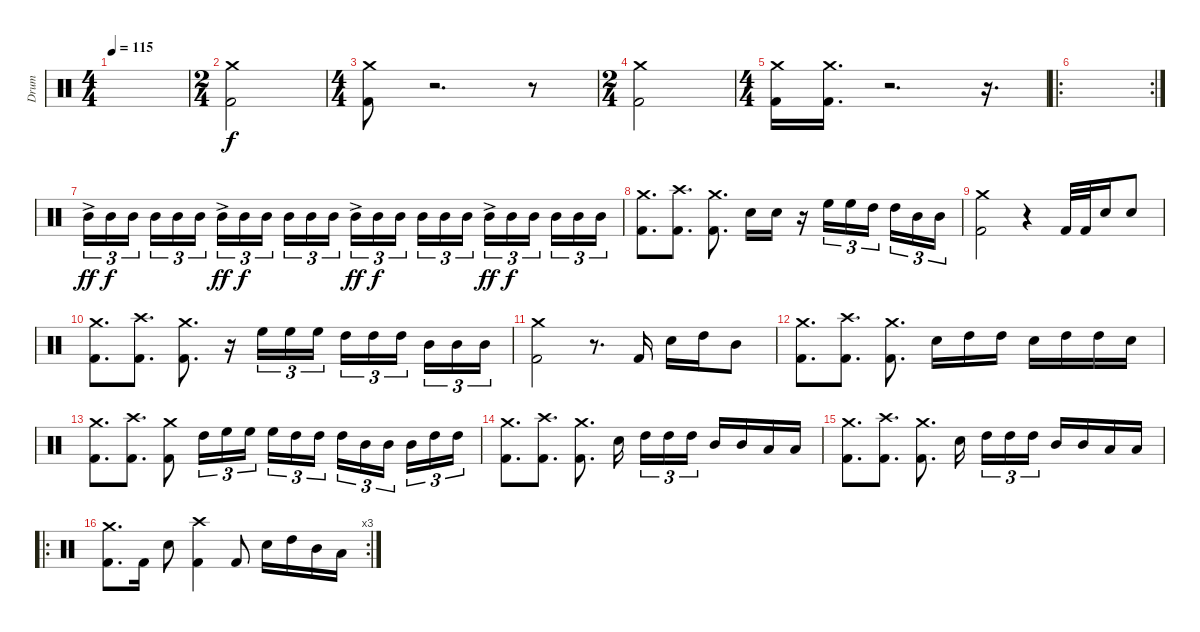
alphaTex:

\track ("Drum" "Drum") {instrument percussion}
\staff {score}
\articulation defaults
\ts (4 4)
\tempo 115
\clef neutral
\ks c
|
\ts (2 4)
("Crash medium (hit)" "Kick (hit) 2").2 |
\ts (4 4)
("Crash medium (hit)" "Kick (hit) 2").8 r.2{d} r.8 |
\ts (2 4)
("Crash medium (hit)" "Kick (hit) 2").2 |
\ts (4 4)
("Crash medium (hit)" "Kick (hit) 2").16 ("Crash medium (hit)" "Kick (hit) 2").16{d} r.2{d} r.16{d} |
\ro
\rc 2
|
"Mid Tom (hit)"{ac}.16{tu (3 2) dy ff} "Mid Tom (hit)".16{tu (3 2) dy f} "Mid Tom (hit)".16{tu (3 2)} "Mid Tom (hit)".16{tu (3 2)} "Mid Tom (hit)".16{tu (3 2)} "Mid Tom (hit)".16{tu (3 2)} "Mid Tom (hit)"{ac}.16{tu (3 2) dy ff} "Mid Tom (hit)".16{tu (3 2) dy f} "Mid Tom (hit)".16{tu (3 2)} "Mid Tom (hit)".16{tu (3 2)} "Mid Tom (hit)".16{tu (3 2)} "Mid Tom (hit)".16{tu (3 2)} "Mid Tom (hit)"{ac}.16{tu (3 2) dy ff} "Mid Tom (hit)".16{tu (3 2) dy f} "Mid Tom (hit)".16{tu (3 2)} "Mid Tom (hit)".16{tu (3 2)} "Mid Tom (hit)".16{tu (3 2)} "Mid Tom (hit)".16{tu (3 2)} "Mid Tom (hit)"{ac}.16{tu (3 2) dy ff} "Mid Tom (hit)".16{tu (3 2) dy f} "Mid Tom (hit)".16{tu (3 2)} "Mid Tom (hit)".16{tu (3 2)} "Mid Tom (hit)".16{tu (3 2)} "Mid Tom (hit)".16{tu (3 2)} |
("Crash medium (hit)" "Kick (hit) 2").8{d} ("Crash high (hit)" "Kick (hit) 2").8{d} ("Crash medium (hit)" "Kick (hit) 2").8{d} "Electric Snare (hit)".16 "Electric Snare (hit)".16 r.16 "High Floor Tom (hit)".16{tu (3 2)} "High Floor Tom (hit)".16{tu (3 2)} "High Tom (hit)".16{tu (3 2)} "High Tom (hit)".16{tu (3 2)} "Mid Tom (hit)".16{tu (3 2)} "Mid Tom (hit)".16{tu (3 2)} |
("Crash medium (hit)" "Kick (hit) 2").2 r.4 "Kick (hit) 2".32 "Kick (hit) 2".32 "Electric Snare (hit)".16 "Electric Snare (hit)".8 |
("Crash medium (hit)" "Kick (hit) 2").8{d} ("Crash high (hit)" "Kick (hit) 2").8{d} ("Crash medium (hit)" "Kick (hit) 2").8{d} r.16 "High Floor Tom (hit)".16{tu (3 2)} "High Floor Tom (hit)".16{tu (3 2)} "High Floor Tom (hit)".16{tu (3 2)} "High Tom (hit)".16{tu (3 2)} "High Tom (hit)".16{tu (3 2)} "High Tom (hit)".16{tu (3 2)} "Mid Tom (hit)".16{tu (3 2)} "Mid Tom (hit)".16{tu (3 2)} "Mid Tom (hit)".16{tu (3 2)} |
("Crash medium (hit)" "Kick (hit) 2").2 r.8{d} "Kick (hit) 2".16 "Electric Snare (hit)".16 "High Tom (hit)".16 "Mid Tom (hit)".8 |
("Crash medium (hit)" "Kick (hit) 2").8{d} ("Crash high (hit)" "Kick (hit) 2").8{d} ("Crash medium (hit)" "Kick (hit) 2").8{d} "Electric Snare (hit)".16 "High Tom (hit)".16 "High Tom (hit)".16 "Electric Snare (hit)".16 "High Tom (hit)".16 "High Tom (hit)".16 "Electric Snare (hit)".16 |
("Crash medium (hit)" "Kick (hit) 2").8{d} ("Crash high (hit)" "Kick (hit) 2").8{d} ("Crash medium (hit)" "Kick (hit) 2").8 "High Tom (hit)".16{tu (3 2)} "High Floor Tom (hit)".16{tu (3 2)} "High Floor Tom (hit)".16{tu (3 2)} "High Floor Tom (hit)".16{tu (3 2)} "High Tom (hit)".16{tu (3 2)} "High Tom (hit)".16{tu (3 2)} "High Tom (hit)".16{tu (3 2)} "Mid Tom (hit)".16{tu (3 2)} "Mid Tom (hit)".16{tu (3 2)} "Mid Tom (hit)".16{tu (3 2)} "High Tom (hit)".16{tu (3 2)} "High Tom (hit)".16{tu (3 2)} |
("Crash medium (hit)" "Kick (hit) 2").8{d} ("Crash high (hit)" "Kick (hit) 2").8{d} ("Crash medium (hit)" "Kick (hit) 2").8{d} "Electric Snare (hit)".16 "High Tom (hit)".16{tu (3 2)} "High Tom (hit)".16{tu (3 2)} "High Tom (hit)".16{tu (3 2)} "Mid Tom (hit)".16 "Mid Tom (hit)".16 "Low Tom (hit)".16 "Low Tom (hit)".16 |
("Crash medium (hit)" "Kick (hit) 2").8{d} ("Crash high (hit)" "Kick (hit) 2").8{d} ("Crash medium (hit)" "Kick (hit) 2").8{d} "Electric Snare (hit)".16 "High Tom (hit)".16{tu (3 2)} "High Tom (hit)".16{tu (3 2)} "High Tom (hit)".16{tu (3 2)} "Mid Tom (hit)".16 "Mid Tom (hit)".16 "Low Tom (hit)".16 "Low Tom (hit)".16 |
\ro
\rc 3
("Crash medium (hit)" "Kick (hit) 2").8{d} "Kick (hit) 2".16 "Snare (hit) 2".8 ("Crash high (hit)" "Kick (hit) 2").4 "Kick (hit) 2".8 "Electric Snare (hit)".16 "High Tom (hit)".16 "Mid Tom (hit)".16 "Low Tom (hit)".16
